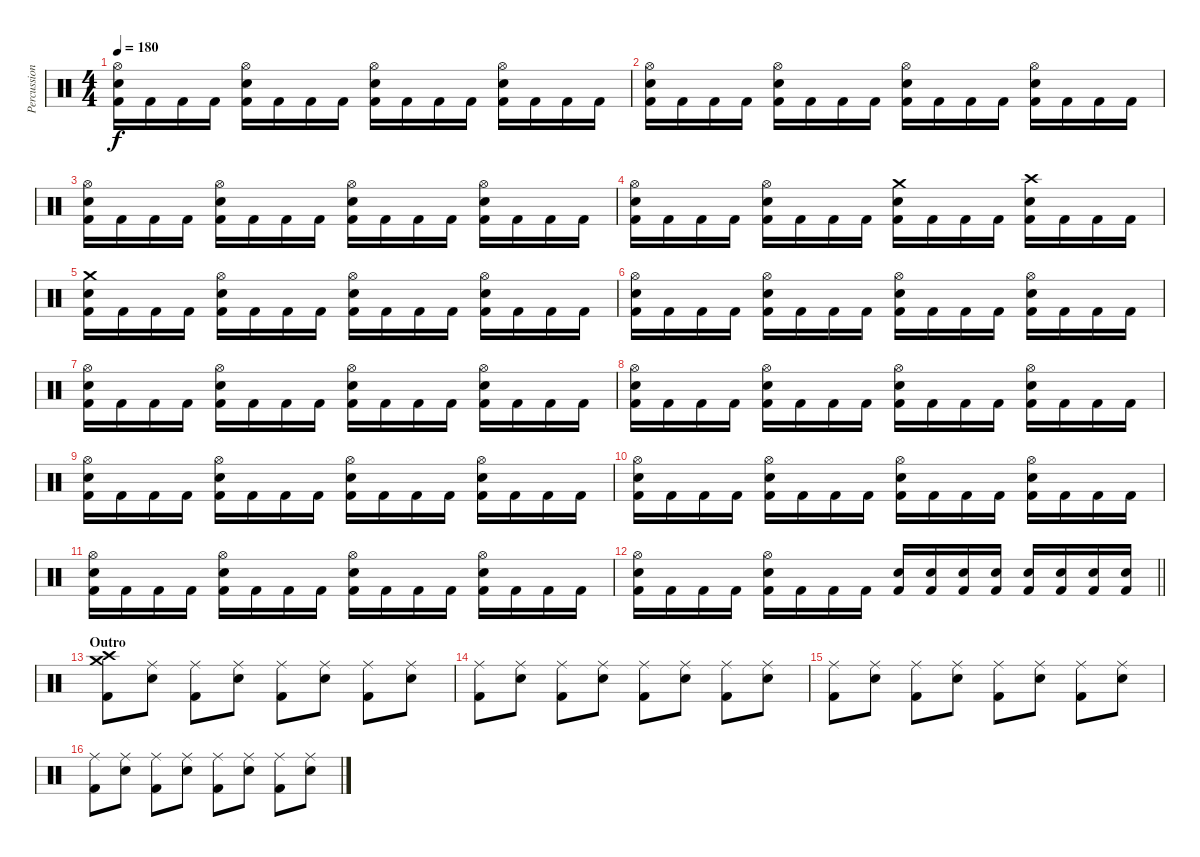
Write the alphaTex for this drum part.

\track ("Percussion" "Percussion") {instrument percussion}
\staff {score}
\articulation defaults
\ts (4 4)
\tempo 180
\clef neutral
\ks c
("Hi-Hat (open)" "Electric Snare (hit)" "Kick (hit) 2").16{dy f} "Kick (hit) 2".16 "Kick (hit) 2".16 "Kick (hit) 2".16 ("Hi-Hat (open)" "Electric Snare (hit)" "Kick (hit) 2").16 "Kick (hit) 2".16 "Kick (hit) 2".16 "Kick (hit) 2".16 ("Hi-Hat (open)" "Electric Snare (hit)" "Kick (hit) 2").16 "Kick (hit) 2".16 "Kick (hit) 2".16 "Kick (hit) 2".16 ("Hi-Hat (open)" "Electric Snare (hit)" "Kick (hit) 2").16 "Kick (hit) 2".16 "Kick (hit) 2".16 "Kick (hit) 2".16 |
("Hi-Hat (open)" "Electric Snare (hit)" "Kick (hit) 2").16 "Kick (hit) 2".16 "Kick (hit) 2".16 "Kick (hit) 2".16 ("Hi-Hat (open)" "Electric Snare (hit)" "Kick (hit) 2").16 "Kick (hit) 2".16 "Kick (hit) 2".16 "Kick (hit) 2".16 ("Hi-Hat (open)" "Electric Snare (hit)" "Kick (hit) 2").16 "Kick (hit) 2".16 "Kick (hit) 2".16 "Kick (hit) 2".16 ("Hi-Hat (open)" "Electric Snare (hit)" "Kick (hit) 2").16 "Kick (hit) 2".16 "Kick (hit) 2".16 "Kick (hit) 2".16 |
("Hi-Hat (open)" "Electric Snare (hit)" "Kick (hit) 2").16 "Kick (hit) 2".16 "Kick (hit) 2".16 "Kick (hit) 2".16 ("Hi-Hat (open)" "Electric Snare (hit)" "Kick (hit) 2").16 "Kick (hit) 2".16 "Kick (hit) 2".16 "Kick (hit) 2".16 ("Hi-Hat (open)" "Electric Snare (hit)" "Kick (hit) 2").16 "Kick (hit) 2".16 "Kick (hit) 2".16 "Kick (hit) 2".16 ("Hi-Hat (open)" "Electric Snare (hit)" "Kick (hit) 2").16 "Kick (hit) 2".16 "Kick (hit) 2".16 "Kick (hit) 2".16 |
("Hi-Hat (open)" "Electric Snare (hit)" "Kick (hit) 2").16 "Kick (hit) 2".16 "Kick (hit) 2".16 "Kick (hit) 2".16 ("Hi-Hat (open)" "Electric Snare (hit)" "Kick (hit) 2").16 "Kick (hit) 2".16 "Kick (hit) 2".16 "Kick (hit) 2".16 ("Crash medium (hit)" "Electric Snare (hit)" "Kick (hit) 2").16 "Kick (hit) 2".16 "Kick (hit) 2".16 "Kick (hit) 2".16 ("Crash high (hit)" "Electric Snare (hit)" "Kick (hit) 2").16 "Kick (hit) 2".16 "Kick (hit) 2".16 "Kick (hit) 2".16 |
("Crash medium (hit)" "Electric Snare (hit)" "Kick (hit) 2").16 "Kick (hit) 2".16 "Kick (hit) 2".16 "Kick (hit) 2".16 ("Hi-Hat (open)" "Electric Snare (hit)" "Kick (hit) 2").16 "Kick (hit) 2".16 "Kick (hit) 2".16 "Kick (hit) 2".16 ("Hi-Hat (open)" "Electric Snare (hit)" "Kick (hit) 2").16 "Kick (hit) 2".16 "Kick (hit) 2".16 "Kick (hit) 2".16 ("Hi-Hat (open)" "Electric Snare (hit)" "Kick (hit) 2").16 "Kick (hit) 2".16 "Kick (hit) 2".16 "Kick (hit) 2".16 |
("Hi-Hat (open)" "Electric Snare (hit)" "Kick (hit) 2").16 "Kick (hit) 2".16 "Kick (hit) 2".16 "Kick (hit) 2".16 ("Hi-Hat (open)" "Electric Snare (hit)" "Kick (hit) 2").16 "Kick (hit) 2".16 "Kick (hit) 2".16 "Kick (hit) 2".16 ("Hi-Hat (open)" "Electric Snare (hit)" "Kick (hit) 2").16 "Kick (hit) 2".16 "Kick (hit) 2".16 "Kick (hit) 2".16 ("Hi-Hat (open)" "Electric Snare (hit)" "Kick (hit) 2").16 "Kick (hit) 2".16 "Kick (hit) 2".16 "Kick (hit) 2".16 |
("Hi-Hat (open)" "Electric Snare (hit)" "Kick (hit) 2").16 "Kick (hit) 2".16 "Kick (hit) 2".16 "Kick (hit) 2".16 ("Hi-Hat (open)" "Electric Snare (hit)" "Kick (hit) 2").16 "Kick (hit) 2".16 "Kick (hit) 2".16 "Kick (hit) 2".16 ("Hi-Hat (open)" "Electric Snare (hit)" "Kick (hit) 2").16 "Kick (hit) 2".16 "Kick (hit) 2".16 "Kick (hit) 2".16 ("Hi-Hat (open)" "Electric Snare (hit)" "Kick (hit) 2").16 "Kick (hit) 2".16 "Kick (hit) 2".16 "Kick (hit) 2".16 |
("Hi-Hat (open)" "Electric Snare (hit)" "Kick (hit) 2").16 "Kick (hit) 2".16 "Kick (hit) 2".16 "Kick (hit) 2".16 ("Hi-Hat (open)" "Electric Snare (hit)" "Kick (hit) 2").16 "Kick (hit) 2".16 "Kick (hit) 2".16 "Kick (hit) 2".16 ("Hi-Hat (open)" "Electric Snare (hit)" "Kick (hit) 2").16 "Kick (hit) 2".16 "Kick (hit) 2".16 "Kick (hit) 2".16 ("Hi-Hat (open)" "Electric Snare (hit)" "Kick (hit) 2").16 "Kick (hit) 2".16 "Kick (hit) 2".16 "Kick (hit) 2".16 |
("Hi-Hat (open)" "Electric Snare (hit)" "Kick (hit) 2").16 "Kick (hit) 2".16 "Kick (hit) 2".16 "Kick (hit) 2".16 ("Hi-Hat (open)" "Electric Snare (hit)" "Kick (hit) 2").16 "Kick (hit) 2".16 "Kick (hit) 2".16 "Kick (hit) 2".16 ("Hi-Hat (open)" "Electric Snare (hit)" "Kick (hit) 2").16 "Kick (hit) 2".16 "Kick (hit) 2".16 "Kick (hit) 2".16 ("Hi-Hat (open)" "Electric Snare (hit)" "Kick (hit) 2").16 "Kick (hit) 2".16 "Kick (hit) 2".16 "Kick (hit) 2".16 |
("Hi-Hat (open)" "Electric Snare (hit)" "Kick (hit) 2").16 "Kick (hit) 2".16 "Kick (hit) 2".16 "Kick (hit) 2".16 ("Hi-Hat (open)" "Electric Snare (hit)" "Kick (hit) 2").16 "Kick (hit) 2".16 "Kick (hit) 2".16 "Kick (hit) 2".16 ("Hi-Hat (open)" "Electric Snare (hit)" "Kick (hit) 2").16 "Kick (hit) 2".16 "Kick (hit) 2".16 "Kick (hit) 2".16 ("Hi-Hat (open)" "Electric Snare (hit)" "Kick (hit) 2").16 "Kick (hit) 2".16 "Kick (hit) 2".16 "Kick (hit) 2".16 |
("Hi-Hat (open)" "Electric Snare (hit)" "Kick (hit) 2").16 "Kick (hit) 2".16 "Kick (hit) 2".16 "Kick (hit) 2".16 ("Hi-Hat (open)" "Electric Snare (hit)" "Kick (hit) 2").16 "Kick (hit) 2".16 "Kick (hit) 2".16 "Kick (hit) 2".16 ("Hi-Hat (open)" "Electric Snare (hit)" "Kick (hit) 2").16 "Kick (hit) 2".16 "Kick (hit) 2".16 "Kick (hit) 2".16 ("Hi-Hat (open)" "Electric Snare (hit)" "Kick (hit) 2").16 "Kick (hit) 2".16 "Kick (hit) 2".16 "Kick (hit) 2".16 |
\barLineRight lightlight
("Hi-Hat (open)" "Electric Snare (hit)" "Kick (hit) 2").16 "Kick (hit) 2".16 "Kick (hit) 2".16 "Kick (hit) 2".16 ("Hi-Hat (open)" "Electric Snare (hit)" "Kick (hit) 2").16 "Kick (hit) 2".16 "Kick (hit) 2".16 "Kick (hit) 2".16 ("Electric Snare (hit)" "Kick (hit) 2").16 ("Electric Snare (hit)" "Kick (hit) 2").16 ("Electric Snare (hit)" "Kick (hit) 2").16 ("Electric Snare (hit)" "Kick (hit) 2").16 ("Electric Snare (hit)" "Kick (hit) 2").16 ("Electric Snare (hit)" "Kick (hit) 2").16 ("Electric Snare (hit)" "Kick (hit) 2").16 ("Electric Snare (hit)" "Kick (hit) 2").16 |
\section ("" "Outro")
("Crash high (hit)" "Crash medium (hit)" "Kick (hit) 2").8 ("Ride (middle)" "Electric Snare (hit)").8 ("Ride (middle)" "Kick (hit) 2").8 ("Ride (middle)" "Electric Snare (hit)").8 ("Ride (middle)" "Kick (hit) 2").8 ("Ride (middle)" "Electric Snare (hit)").8 ("Ride (middle)" "Kick (hit) 2").8 ("Ride (middle)" "Electric Snare (hit)").8 |
("Ride (middle)" "Kick (hit) 2").8 ("Ride (middle)" "Electric Snare (hit)").8 ("Ride (middle)" "Kick (hit) 2").8 ("Ride (middle)" "Electric Snare (hit)").8 ("Ride (middle)" "Kick (hit) 2").8 ("Ride (middle)" "Electric Snare (hit)").8 ("Ride (middle)" "Kick (hit) 2").8 ("Ride (middle)" "Electric Snare (hit)").8 |
("Ride (middle)" "Kick (hit) 2").8 ("Ride (middle)" "Electric Snare (hit)").8 ("Ride (middle)" "Kick (hit) 2").8 ("Ride (middle)" "Electric Snare (hit)").8 ("Ride (middle)" "Kick (hit) 2").8 ("Ride (middle)" "Electric Snare (hit)").8 ("Ride (middle)" "Kick (hit) 2").8 ("Ride (middle)" "Electric Snare (hit)").8 |
("Ride (middle)" "Kick (hit) 2").8 ("Ride (middle)" "Electric Snare (hit)").8 ("Ride (middle)" "Kick (hit) 2").8 ("Ride (middle)" "Electric Snare (hit)").8 ("Ride (middle)" "Kick (hit) 2").8 ("Ride (middle)" "Electric Snare (hit)").8 ("Ride (middle)" "Kick (hit) 2").8 ("Ride (middle)" "Electric Snare (hit)").8
